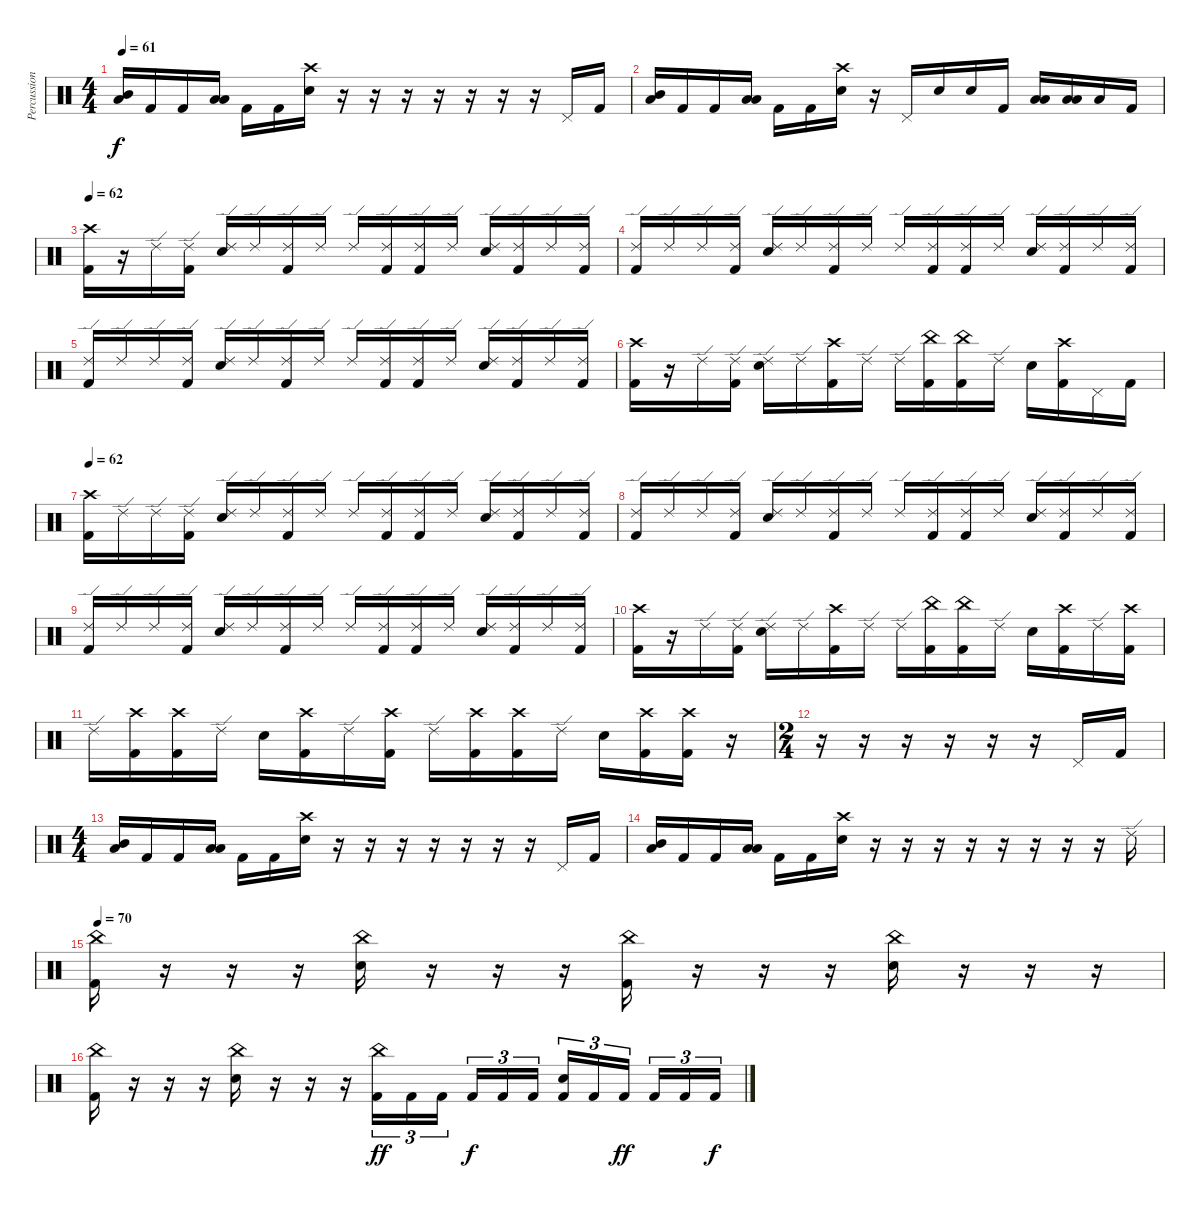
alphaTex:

\track ("Percussion" "Percussion") {instrument percussion}
\staff {score}
\articulation defaults
\ts (4 4)
\tempo 61
\clef neutral
\ks c
("Mid Tom (hit)" "Low Tom (hit)").16{dy f} "Kick (hit) 2".16 "Kick (hit) 2".16 ("Low Tom (hit)" "Low Floor Tom (hit)").16 "Kick (hit) 2".16 "Kick (hit) 2".16 ("Crash high (hit)" "Snare (hit) 2").16 r.16 r.16 r.16 r.16 r.16 r.16 r.16 "Pedal Hi-Hat (hit)".16 "Kick (hit) 2".16 |
("Mid Tom (hit)" "Low Tom (hit)").16 "Kick (hit) 2".16 "Kick (hit) 2".16 ("Low Tom (hit)" "Low Floor Tom (hit)").16 "Kick (hit) 2".16 "Kick (hit) 2".16 ("Crash high (hit)" "Snare (hit) 2").16 r.16 "Pedal Hi-Hat (hit)".16 "Snare (hit) 2".16 "Snare (hit) 2".16 "Kick (hit) 2".16 ("Low Tom (hit)" "Low Floor Tom (hit)").16 ("Low Tom (hit)" "Low Floor Tom (hit)").16 "Low Floor Tom (hit)".16 "Kick (hit) 2".16 |
\tempo 62
("Crash high (hit)" "Kick (hit) 2").16 r.16 "Ride (edge) 2".16 ("Ride (edge) 2" "Kick (hit) 2").16 ("Ride (edge) 2" "Snare (hit) 2").16 "Ride (edge) 2".16 ("Ride (edge) 2" "Kick (hit) 2").16 "Ride (edge) 2".16 "Ride (edge) 2".16 ("Ride (edge) 2" "Kick (hit) 2").16 ("Ride (edge) 2" "Kick (hit) 2").16 "Ride (edge) 2".16 ("Ride (edge) 2" "Snare (hit) 2").16 ("Ride (edge) 2" "Kick (hit) 2").16 "Ride (edge) 2".16 ("Ride (edge) 2" "Kick (hit) 2").16 |
("Ride (edge) 2" "Kick (hit) 2").16 "Ride (edge) 2".16 "Ride (edge) 2".16 ("Ride (edge) 2" "Kick (hit) 2").16 ("Ride (edge) 2" "Snare (hit) 2").16 "Ride (edge) 2".16 ("Ride (edge) 2" "Kick (hit) 2").16 "Ride (edge) 2".16 "Ride (edge) 2".16 ("Ride (edge) 2" "Kick (hit) 2").16 ("Ride (edge) 2" "Kick (hit) 2").16 "Ride (edge) 2".16 ("Ride (edge) 2" "Snare (hit) 2").16 ("Ride (edge) 2" "Kick (hit) 2").16 "Ride (edge) 2".16 ("Ride (edge) 2" "Kick (hit) 2").16 |
("Ride (edge) 2" "Kick (hit) 2").16 "Ride (edge) 2".16 "Ride (edge) 2".16 ("Ride (edge) 2" "Kick (hit) 2").16 ("Ride (edge) 2" "Snare (hit) 2").16 "Ride (edge) 2".16 ("Ride (edge) 2" "Kick (hit) 2").16 "Ride (edge) 2".16 "Ride (edge) 2".16 ("Ride (edge) 2" "Kick (hit) 2").16 ("Ride (edge) 2" "Kick (hit) 2").16 "Ride (edge) 2".16 ("Ride (edge) 2" "Snare (hit) 2").16 ("Ride (edge) 2" "Kick (hit) 2").16 "Ride (edge) 2".16 ("Ride (edge) 2" "Kick (hit) 2").16 |
("Crash high (hit)" "Kick (hit) 2").16 r.16 "Ride (edge) 2".16 ("Ride (edge) 2" "Kick (hit) 2").16 ("Ride (edge) 2" "Snare (hit) 2").16 "Ride (edge) 2".16 ("Crash high (hit)" "Kick (hit) 2").16 "Ride (edge) 2".16 "Ride (edge) 2".16 ("China (hit)" "Kick (hit) 2").16 ("China (hit)" "Kick (hit) 2").16 "Ride (edge) 2".16 "Snare (hit) 2".16 ("Crash high (hit)" "Kick (hit) 2").16 "Pedal Hi-Hat (hit)".16 "Kick (hit) 2".16 |
\tempo 62
("Crash high (hit)" "Kick (hit) 2").16 "Ride (edge) 2".16 "Ride (edge) 2".16 ("Ride (edge) 2" "Kick (hit) 2").16 ("Ride (edge) 2" "Snare (hit) 2").16 "Ride (edge) 2".16 ("Ride (edge) 2" "Kick (hit) 2").16 "Ride (edge) 2".16 "Ride (edge) 2".16 ("Ride (edge) 2" "Kick (hit) 2").16 ("Ride (edge) 2" "Kick (hit) 2").16 "Ride (edge) 2".16 ("Ride (edge) 2" "Snare (hit) 2").16 ("Ride (edge) 2" "Kick (hit) 2").16 "Ride (edge) 2".16 ("Ride (edge) 2" "Kick (hit) 2").16 |
("Ride (edge) 2" "Kick (hit) 2").16 "Ride (edge) 2".16 "Ride (edge) 2".16 ("Ride (edge) 2" "Kick (hit) 2").16 ("Ride (edge) 2" "Snare (hit) 2").16 "Ride (edge) 2".16 ("Ride (edge) 2" "Kick (hit) 2").16 "Ride (edge) 2".16 "Ride (edge) 2".16 ("Ride (edge) 2" "Kick (hit) 2").16 ("Ride (edge) 2" "Kick (hit) 2").16 "Ride (edge) 2".16 ("Ride (edge) 2" "Snare (hit) 2").16 ("Ride (edge) 2" "Kick (hit) 2").16 "Ride (edge) 2".16 ("Ride (edge) 2" "Kick (hit) 2").16 |
("Ride (edge) 2" "Kick (hit) 2").16 "Ride (edge) 2".16 "Ride (edge) 2".16 ("Ride (edge) 2" "Kick (hit) 2").16 ("Ride (edge) 2" "Snare (hit) 2").16 "Ride (edge) 2".16 ("Ride (edge) 2" "Kick (hit) 2").16 "Ride (edge) 2".16 "Ride (edge) 2".16 ("Ride (edge) 2" "Kick (hit) 2").16 ("Ride (edge) 2" "Kick (hit) 2").16 "Ride (edge) 2".16 ("Ride (edge) 2" "Snare (hit) 2").16 ("Ride (edge) 2" "Kick (hit) 2").16 "Ride (edge) 2".16 ("Ride (edge) 2" "Kick (hit) 2").16 |
("Crash high (hit)" "Kick (hit) 2").16 r.16 "Ride (edge) 2".16 ("Ride (edge) 2" "Kick (hit) 2").16 ("Ride (edge) 2" "Snare (hit) 2").16 "Ride (edge) 2".16 ("Crash high (hit)" "Kick (hit) 2").16 "Ride (edge) 2".16 "Ride (edge) 2".16 ("China (hit)" "Kick (hit) 2").16 ("China (hit)" "Kick (hit) 2").16 "Ride (edge) 2".16 "Snare (hit) 2".16 ("Crash high (hit)" "Kick (hit) 2").16 "Ride (edge) 2".16 ("Crash high (hit)" "Kick (hit) 2").16 |
"Ride (edge) 2".16 ("Crash high (hit)" "Kick (hit) 2").16 ("Crash high (hit)" "Kick (hit) 2").16 "Ride (edge) 2".16 "Snare (hit) 2".16 ("Crash high (hit)" "Kick (hit) 2").16 "Ride (edge) 2".16 ("Crash high (hit)" "Kick (hit) 2").16 "Ride (edge) 2".16 ("Crash high (hit)" "Kick (hit) 2").16 ("Crash high (hit)" "Kick (hit) 2").16 "Ride (edge) 2".16 "Snare (hit) 2".16 ("Crash high (hit)" "Kick (hit) 2").16 ("Crash high (hit)" "Kick (hit) 2").16 r.16 |
\ts (2 4)
r.16 r.16 r.16 r.16 r.16 r.16 "Pedal Hi-Hat (hit)".16 "Kick (hit) 2".16 |
\ts (4 4)
("Mid Tom (hit)" "Low Tom (hit)").16 "Kick (hit) 2".16 "Kick (hit) 2".16 ("Low Tom (hit)" "Low Floor Tom (hit)").16 "Kick (hit) 2".16 "Kick (hit) 2".16 ("Crash high (hit)" "Snare (hit) 2").16 r.16 r.16 r.16 r.16 r.16 r.16 r.16 "Pedal Hi-Hat (hit)".16 "Kick (hit) 2".16 |
("Mid Tom (hit)" "Low Tom (hit)").16 "Kick (hit) 2".16 "Kick (hit) 2".16 ("Low Tom (hit)" "Low Floor Tom (hit)").16 "Kick (hit) 2".16 "Kick (hit) 2".16 ("Crash high (hit)" "Snare (hit) 2").16 r.16 r.16 r.16 r.16 r.16 r.16 r.16 r.16 "Ride (edge) 2".16 |
\tempo 70
("China (hit)" "Kick (hit) 2").16 r.16 r.16 r.16 ("China (hit)" "Snare (hit) 2").16 r.16 r.16 r.16 ("China (hit)" "Kick (hit) 2").16 r.16 r.16 r.16 ("China (hit)" "Snare (hit) 2").16 r.16 r.16 r.16 |
("China (hit)" "Kick (hit) 2").16 r.16 r.16 r.16 ("China (hit)" "Snare (hit) 2").16 r.16 r.16 r.16 ("China (hit)" "Kick (hit) 2").16{tu (3 2) dy ff} "Kick (hit) 2".16{tu (3 2)} "Kick (hit) 2".16{tu (3 2) beam splitsecondary} "Kick (hit) 2".16{tu (3 2) dy f} "Kick (hit) 2".16{tu (3 2)} "Kick (hit) 2".16{tu (3 2)} ("Snare (hit) 2" "Kick (hit) 2").16{tu (3 2)} "Kick (hit) 2".16{tu (3 2)} "Kick (hit) 2".16{tu (3 2) dy ff beam splitsecondary} "Kick (hit) 2".16{tu (3 2)} "Kick (hit) 2".16{tu (3 2)} "Kick (hit) 2".16{tu (3 2) dy f}
